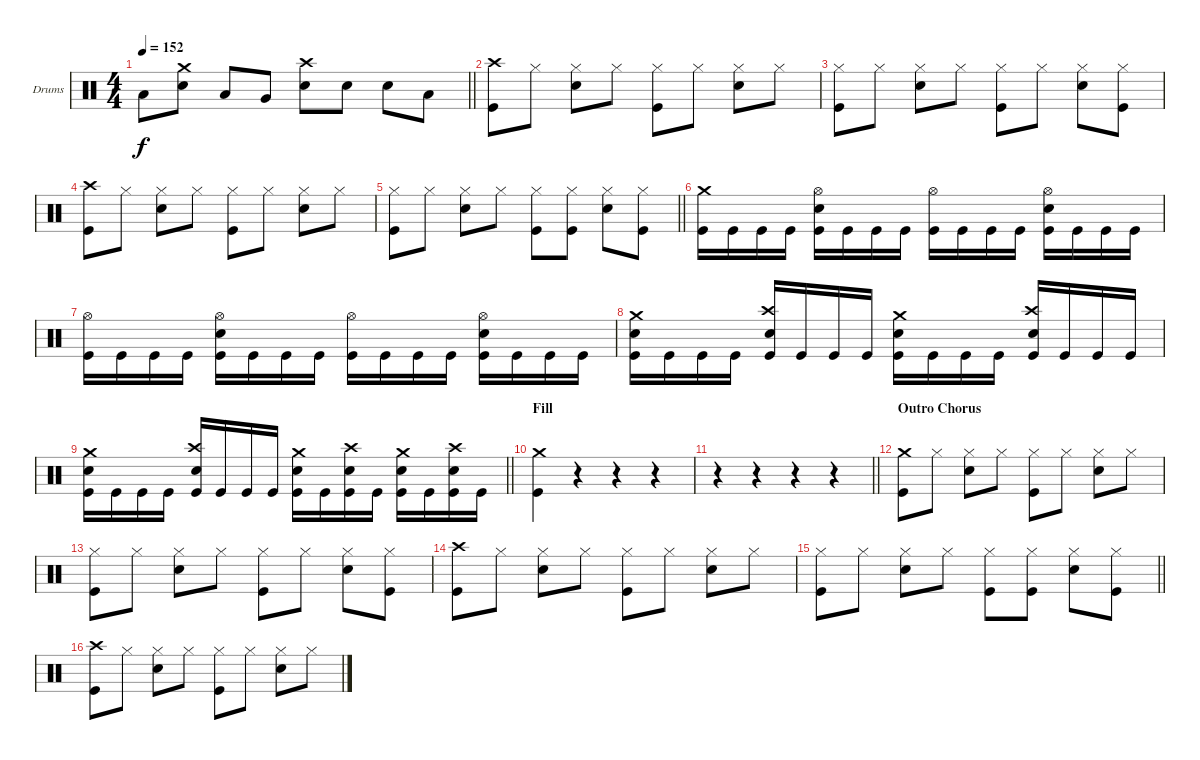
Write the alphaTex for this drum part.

\bracketExtendMode groupsimilarinstruments
\firstSystemTrackNameOrientation horizontal
\otherSystemsTrackNameOrientation horizontal
\track ("Drumkit" "Drums") {instrument percussion}
\staff {score}
\articulation defaults
\ts (4 4)
\tempo 152
\clef neutral
\barLineRight lightlight
\ks c "Low Tom (hit)".8{dy f}
("Crash medium (hit)" "Snare (hit) 2").8 "Low Tom (hit)".8 "Very Low Tom (hit)".8 ("Crash high (hit)" "Snare (hit) 2").8 "Snare (hit) 2".8 "Snare (hit) 2".8 "Low Tom (hit)".8 |
("Crash high (hit)" "Kick (hit)").8 "Hi-Hat (closed)".8 ("Hi-Hat (closed)" "Snare (hit) 2").8 "Hi-Hat (closed)".8 ("Hi-Hat (closed)" "Kick (hit)").8 "Hi-Hat (closed)".8 ("Hi-Hat (closed)" "Snare (hit) 2").8 "Hi-Hat (closed)".8 |
("Hi-Hat (closed)" "Kick (hit)").8 "Hi-Hat (closed)".8 ("Hi-Hat (closed)" "Snare (hit) 2").8 "Hi-Hat (closed)".8 ("Hi-Hat (closed)" "Kick (hit)").8 "Hi-Hat (closed)".8 ("Hi-Hat (closed)" "Snare (hit) 2").8 ("Hi-Hat (closed)" "Kick (hit)").8 |
("Crash high (hit)" "Kick (hit)").8 "Hi-Hat (closed)".8 ("Hi-Hat (closed)" "Snare (hit) 2").8 "Hi-Hat (closed)".8 ("Hi-Hat (closed)" "Kick (hit)").8 "Hi-Hat (closed)".8 ("Hi-Hat (closed)" "Snare (hit) 2").8 "Hi-Hat (closed)".8 |
\barLineRight lightlight
("Hi-Hat (closed)" "Kick (hit)").8 "Hi-Hat (closed)".8 ("Hi-Hat (closed)" "Snare (hit) 2").8 "Hi-Hat (closed)".8 ("Hi-Hat (closed)" "Kick (hit)").8 ("Hi-Hat (closed)" "Kick (hit)").8 ("Hi-Hat (closed)" "Snare (hit) 2").8 ("Hi-Hat (closed)" "Kick (hit)").8 |
("Crash medium (hit)" "Kick (hit)").16 "Kick (hit)".16 "Kick (hit)".16 "Kick (hit)".16 ("Hi-Hat (open)" "Snare (hit) 2" "Kick (hit)").16 "Kick (hit)".16 "Kick (hit)".16 "Kick (hit)".16 ("Hi-Hat (open)" "Kick (hit)").16 "Kick (hit)".16 "Kick (hit)".16 "Kick (hit)".16 ("Hi-Hat (open)" "Snare (hit) 2" "Kick (hit)").16 "Kick (hit)".16 "Kick (hit)".16 "Kick (hit)".16 |
("Hi-Hat (open)" "Kick (hit)").16 "Kick (hit)".16 "Kick (hit)".16 "Kick (hit)".16 ("Hi-Hat (open)" "Snare (hit) 2" "Kick (hit)").16 "Kick (hit)".16 "Kick (hit)".16 "Kick (hit)".16 ("Hi-Hat (open)" "Kick (hit)").16 "Kick (hit)".16 "Kick (hit)".16 "Kick (hit)".16 ("Hi-Hat (open)" "Snare (hit) 2" "Kick (hit)").16 "Kick (hit)".16 "Kick (hit)".16 "Kick (hit)".16 |
("Crash medium (hit)" "Snare (hit) 2" "Kick (hit)").16 "Kick (hit)".16 "Kick (hit)".16 "Kick (hit)".16 ("Crash high (hit)" "Snare (hit) 2" "Kick (hit)").16 "Kick (hit)".16 "Kick (hit)".16 "Kick (hit)".16 ("Crash medium (hit)" "Snare (hit) 2" "Kick (hit)").16 "Kick (hit)".16 "Kick (hit)".16 "Kick (hit)".16 ("Crash high (hit)" "Snare (hit) 2" "Kick (hit)").16 "Kick (hit)".16 "Kick (hit)".16 "Kick (hit)".16 |
\barLineRight lightlight
("Crash medium (hit)" "Snare (hit) 2" "Kick (hit)").16 "Kick (hit)".16 "Kick (hit)".16 "Kick (hit)".16 ("Crash high (hit)" "Snare (hit) 2" "Kick (hit)").16 "Kick (hit)".16 "Kick (hit)".16 "Kick (hit)".16 ("Crash medium (hit)" "Snare (hit) 2" "Kick (hit)").16 "Kick (hit)".16 ("Crash high (hit)" "Snare (hit) 2" "Kick (hit)").16 "Kick (hit)".16 ("Crash medium (hit)" "Snare (hit) 2" "Kick (hit)").16 "Kick (hit)".16 ("Crash high (hit)" "Snare (hit) 2" "Kick (hit)").16 "Kick (hit)".16 |
\section ("" "Fill")
("Crash medium (hit)" "Kick (hit)").4 r.4 r.4 r.4 |
\barLineRight lightlight
r.4 r.4 r.4 r.4 |
\section ("" "Outro Chorus")
("Crash medium (hit)" "Kick (hit)").8 "Hi-Hat (closed)".8 ("Hi-Hat (closed)" "Snare (hit) 2").8 "Hi-Hat (closed)".8 ("Hi-Hat (closed)" "Kick (hit)").8 "Hi-Hat (closed)".8 ("Hi-Hat (closed)" "Snare (hit) 2").8 "Hi-Hat (closed)".8 |
("Hi-Hat (closed)" "Kick (hit)").8 "Hi-Hat (closed)".8 ("Hi-Hat (closed)" "Snare (hit) 2").8 "Hi-Hat (closed)".8 ("Hi-Hat (closed)" "Kick (hit)").8 "Hi-Hat (closed)".8 ("Hi-Hat (closed)" "Snare (hit) 2").8 ("Hi-Hat (closed)" "Kick (hit)").8 |
("Crash high (hit)" "Kick (hit)").8 "Hi-Hat (closed)".8 ("Hi-Hat (closed)" "Snare (hit) 2").8 "Hi-Hat (closed)".8 ("Hi-Hat (closed)" "Kick (hit)").8 "Hi-Hat (closed)".8 ("Hi-Hat (closed)" "Snare (hit) 2").8 "Hi-Hat (closed)".8 |
\barLineRight lightlight
("Hi-Hat (closed)" "Kick (hit)").8 "Hi-Hat (closed)".8 ("Hi-Hat (closed)" "Snare (hit) 2").8 "Hi-Hat (closed)".8 ("Hi-Hat (closed)" "Kick (hit)").8 ("Hi-Hat (closed)" "Kick (hit)").8 ("Hi-Hat (closed)" "Snare (hit) 2").8 ("Hi-Hat (closed)" "Kick (hit)").8 |
("Crash high (hit)" "Kick (hit)").8 "Hi-Hat (closed)".8 ("Hi-Hat (closed)" "Snare (hit) 2").8 "Hi-Hat (closed)".8 ("Hi-Hat (closed)" "Kick (hit)").8 "Hi-Hat (closed)".8 ("Hi-Hat (closed)" "Snare (hit) 2").8 "Hi-Hat (closed)".8
